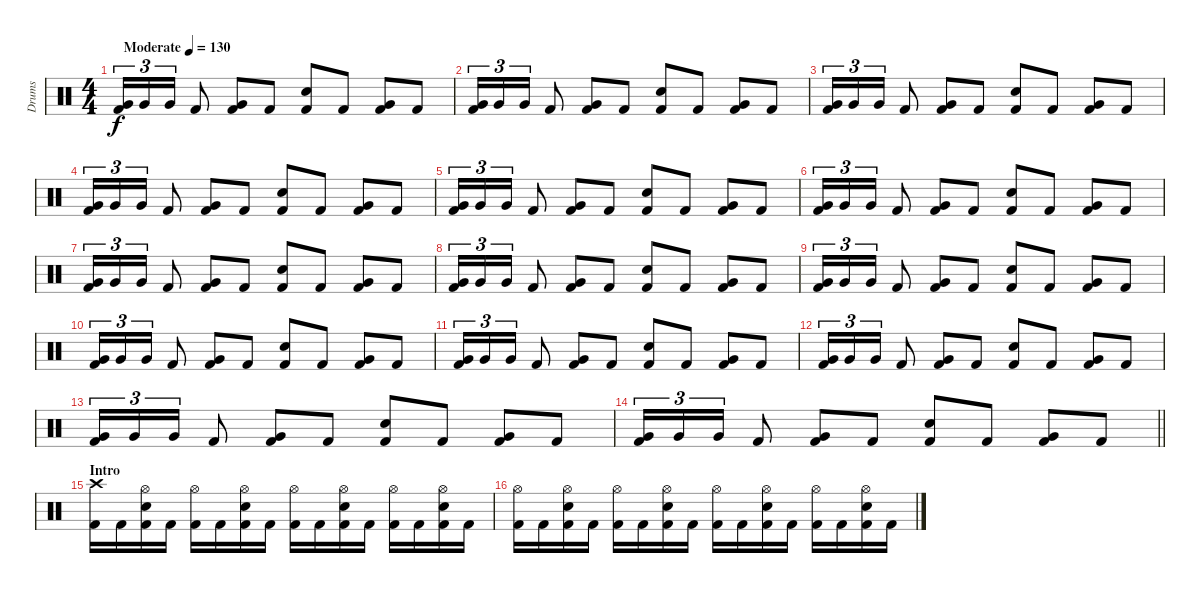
\track ("Drums" "Drums") {instrument percussion}
\staff {score}
\articulation defaults
\ts (4 4)
\tempo (130 "Moderate")
\clef neutral
\ks c
("Very Low Tom (hit)" "Kick (hit) 2").16{tu (3 2) dy f} "Very Low Tom (hit)".16{tu (3 2)} "Very Low Tom (hit)".16{tu (3 2)} "Kick (hit) 2".8 ("Very Low Tom (hit)" "Kick (hit) 2").8 "Kick (hit) 2".8 ("Electric Snare (hit)" "Kick (hit) 2").8 "Kick (hit) 2".8 ("Very Low Tom (hit)" "Kick (hit) 2").8 "Kick (hit) 2".8 |
("Very Low Tom (hit)" "Kick (hit) 2").16{tu (3 2)} "Very Low Tom (hit)".16{tu (3 2)} "Very Low Tom (hit)".16{tu (3 2)} "Kick (hit) 2".8 ("Very Low Tom (hit)" "Kick (hit) 2").8 "Kick (hit) 2".8 ("Electric Snare (hit)" "Kick (hit) 2").8 "Kick (hit) 2".8 ("Very Low Tom (hit)" "Kick (hit) 2").8 "Kick (hit) 2".8 |
("Very Low Tom (hit)" "Kick (hit) 2").16{tu (3 2)} "Very Low Tom (hit)".16{tu (3 2)} "Very Low Tom (hit)".16{tu (3 2)} "Kick (hit) 2".8 ("Very Low Tom (hit)" "Kick (hit) 2").8 "Kick (hit) 2".8 ("Electric Snare (hit)" "Kick (hit) 2").8 "Kick (hit) 2".8 ("Very Low Tom (hit)" "Kick (hit) 2").8 "Kick (hit) 2".8 |
("Very Low Tom (hit)" "Kick (hit) 2").16{tu (3 2)} "Very Low Tom (hit)".16{tu (3 2)} "Very Low Tom (hit)".16{tu (3 2)} "Kick (hit) 2".8 ("Very Low Tom (hit)" "Kick (hit) 2").8 "Kick (hit) 2".8 ("Electric Snare (hit)" "Kick (hit) 2").8 "Kick (hit) 2".8 ("Very Low Tom (hit)" "Kick (hit) 2").8 "Kick (hit) 2".8 |
("Very Low Tom (hit)" "Kick (hit) 2").16{tu (3 2)} "Very Low Tom (hit)".16{tu (3 2)} "Very Low Tom (hit)".16{tu (3 2)} "Kick (hit) 2".8 ("Very Low Tom (hit)" "Kick (hit) 2").8 "Kick (hit) 2".8 ("Electric Snare (hit)" "Kick (hit) 2").8 "Kick (hit) 2".8 ("Very Low Tom (hit)" "Kick (hit) 2").8 "Kick (hit) 2".8 |
("Very Low Tom (hit)" "Kick (hit) 2").16{tu (3 2)} "Very Low Tom (hit)".16{tu (3 2)} "Very Low Tom (hit)".16{tu (3 2)} "Kick (hit) 2".8 ("Very Low Tom (hit)" "Kick (hit) 2").8 "Kick (hit) 2".8 ("Electric Snare (hit)" "Kick (hit) 2").8 "Kick (hit) 2".8 ("Very Low Tom (hit)" "Kick (hit) 2").8 "Kick (hit) 2".8 |
("Very Low Tom (hit)" "Kick (hit) 2").16{tu (3 2)} "Very Low Tom (hit)".16{tu (3 2)} "Very Low Tom (hit)".16{tu (3 2)} "Kick (hit) 2".8 ("Very Low Tom (hit)" "Kick (hit) 2").8 "Kick (hit) 2".8 ("Electric Snare (hit)" "Kick (hit) 2").8 "Kick (hit) 2".8 ("Very Low Tom (hit)" "Kick (hit) 2").8 "Kick (hit) 2".8 |
("Very Low Tom (hit)" "Kick (hit) 2").16{tu (3 2)} "Very Low Tom (hit)".16{tu (3 2)} "Very Low Tom (hit)".16{tu (3 2)} "Kick (hit) 2".8 ("Very Low Tom (hit)" "Kick (hit) 2").8 "Kick (hit) 2".8 ("Electric Snare (hit)" "Kick (hit) 2").8 "Kick (hit) 2".8 ("Very Low Tom (hit)" "Kick (hit) 2").8 "Kick (hit) 2".8 |
("Very Low Tom (hit)" "Kick (hit) 2").16{tu (3 2)} "Very Low Tom (hit)".16{tu (3 2)} "Very Low Tom (hit)".16{tu (3 2)} "Kick (hit) 2".8 ("Very Low Tom (hit)" "Kick (hit) 2").8 "Kick (hit) 2".8 ("Electric Snare (hit)" "Kick (hit) 2").8 "Kick (hit) 2".8 ("Very Low Tom (hit)" "Kick (hit) 2").8 "Kick (hit) 2".8 |
("Very Low Tom (hit)" "Kick (hit) 2").16{tu (3 2)} "Very Low Tom (hit)".16{tu (3 2)} "Very Low Tom (hit)".16{tu (3 2)} "Kick (hit) 2".8 ("Very Low Tom (hit)" "Kick (hit) 2").8 "Kick (hit) 2".8 ("Electric Snare (hit)" "Kick (hit) 2").8 "Kick (hit) 2".8 ("Very Low Tom (hit)" "Kick (hit) 2").8 "Kick (hit) 2".8 |
("Very Low Tom (hit)" "Kick (hit) 2").16{tu (3 2)} "Very Low Tom (hit)".16{tu (3 2)} "Very Low Tom (hit)".16{tu (3 2)} "Kick (hit) 2".8 ("Very Low Tom (hit)" "Kick (hit) 2").8 "Kick (hit) 2".8 ("Electric Snare (hit)" "Kick (hit) 2").8 "Kick (hit) 2".8 ("Very Low Tom (hit)" "Kick (hit) 2").8 "Kick (hit) 2".8 |
("Very Low Tom (hit)" "Kick (hit) 2").16{tu (3 2)} "Very Low Tom (hit)".16{tu (3 2)} "Very Low Tom (hit)".16{tu (3 2)} "Kick (hit) 2".8 ("Very Low Tom (hit)" "Kick (hit) 2").8 "Kick (hit) 2".8 ("Electric Snare (hit)" "Kick (hit) 2").8 "Kick (hit) 2".8 ("Very Low Tom (hit)" "Kick (hit) 2").8 "Kick (hit) 2".8 |
("Very Low Tom (hit)" "Kick (hit) 2").16{tu (3 2)} "Very Low Tom (hit)".16{tu (3 2)} "Very Low Tom (hit)".16{tu (3 2)} "Kick (hit) 2".8 ("Very Low Tom (hit)" "Kick (hit) 2").8 "Kick (hit) 2".8 ("Electric Snare (hit)" "Kick (hit) 2").8 "Kick (hit) 2".8 ("Very Low Tom (hit)" "Kick (hit) 2").8 "Kick (hit) 2".8 |
\barLineRight lightlight
("Very Low Tom (hit)" "Kick (hit) 2").16{tu (3 2)} "Very Low Tom (hit)".16{tu (3 2)} "Very Low Tom (hit)".16{tu (3 2)} "Kick (hit) 2".8 ("Very Low Tom (hit)" "Kick (hit) 2").8 "Kick (hit) 2".8 ("Electric Snare (hit)" "Kick (hit) 2").8 "Kick (hit) 2".8 ("Very Low Tom (hit)" "Kick (hit) 2").8 "Kick (hit) 2".8 |
\section ("" "Intro")
("Crash high (hit)" "Kick (hit) 2").16 "Kick (hit) 2".16 ("Hi-Hat (open)" "Electric Snare (hit)" "Kick (hit) 2").16 "Kick (hit) 2".16 ("Hi-Hat (open)" "Kick (hit) 2").16 "Kick (hit) 2".16 ("Hi-Hat (open)" "Electric Snare (hit)" "Kick (hit) 2").16 "Kick (hit) 2".16 ("Hi-Hat (open)" "Kick (hit) 2").16 "Kick (hit) 2".16 ("Hi-Hat (open)" "Electric Snare (hit)" "Kick (hit) 2").16 "Kick (hit) 2".16 ("Hi-Hat (open)" "Kick (hit) 2").16 "Kick (hit) 2".16 ("Hi-Hat (open)" "Electric Snare (hit)" "Kick (hit) 2").16 "Kick (hit) 2".16 |
("Hi-Hat (open)" "Kick (hit) 2").16 "Kick (hit) 2".16 ("Hi-Hat (open)" "Electric Snare (hit)" "Kick (hit) 2").16 "Kick (hit) 2".16 ("Hi-Hat (open)" "Kick (hit) 2").16 "Kick (hit) 2".16 ("Hi-Hat (open)" "Electric Snare (hit)" "Kick (hit) 2").16 "Kick (hit) 2".16 ("Hi-Hat (open)" "Kick (hit) 2").16 "Kick (hit) 2".16 ("Hi-Hat (open)" "Electric Snare (hit)" "Kick (hit) 2").16 "Kick (hit) 2".16 ("Hi-Hat (open)" "Kick (hit) 2").16 "Kick (hit) 2".16 ("Hi-Hat (open)" "Electric Snare (hit)" "Kick (hit) 2").16 "Kick (hit) 2".16
